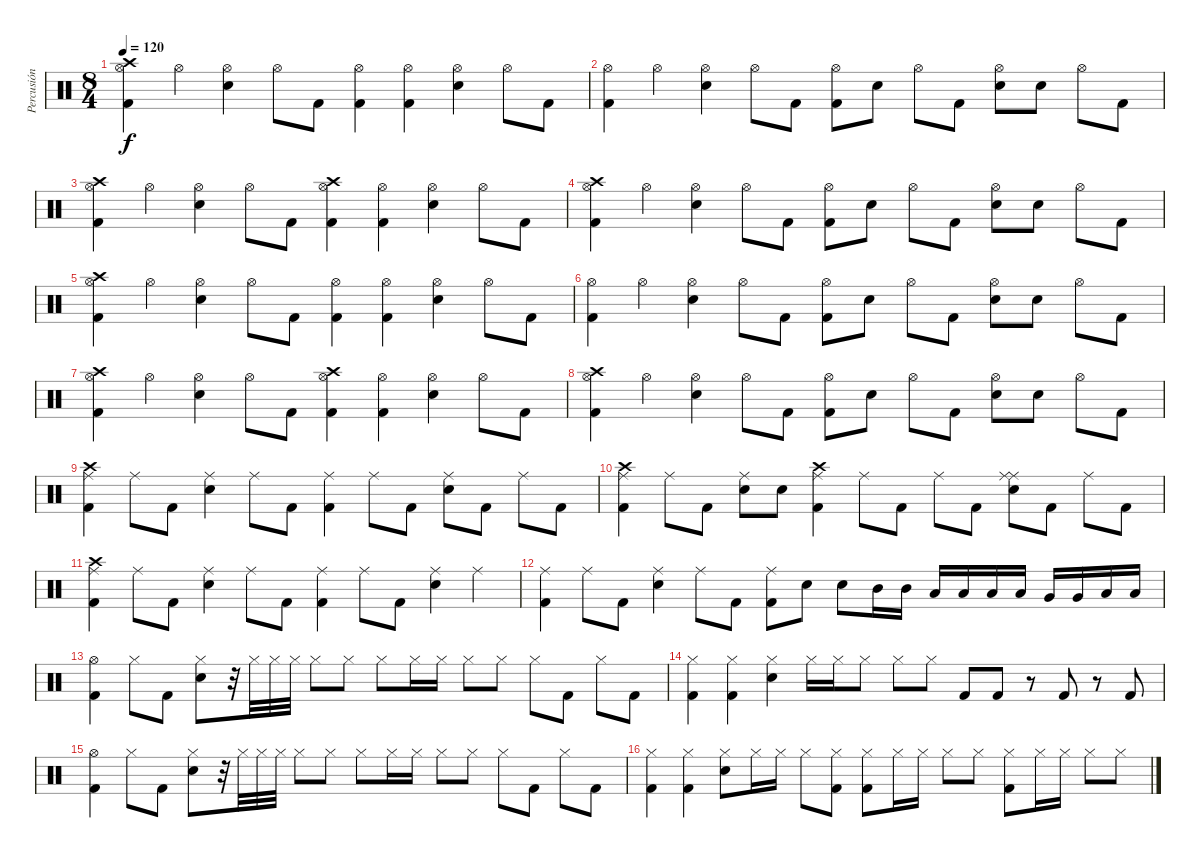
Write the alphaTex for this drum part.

\track ("Percusión" "Percusión") {instrument percussion}
\staff {score}
\articulation defaults
\ts (8 4)
\tempo 120
\clef neutral
\ks c
("Crash high (hit)" "Hi-Hat (open)" "Kick (hit) 2").4{dy f} "Hi-Hat (open)".4 ("Hi-Hat (open)" "Electric Snare (hit)").4 "Hi-Hat (open)".8 "Kick (hit) 2".8 ("Hi-Hat (open)" "Kick (hit) 2").4 ("Hi-Hat (open)" "Kick (hit) 2").4 ("Hi-Hat (open)" "Electric Snare (hit)").4 "Hi-Hat (open)".8 "Kick (hit) 2".8 |
("Hi-Hat (open)" "Kick (hit) 2").4 "Hi-Hat (open)".4 ("Hi-Hat (open)" "Electric Snare (hit)").4 "Hi-Hat (open)".8 "Kick (hit) 2".8 ("Hi-Hat (open)" "Kick (hit) 2").8 "Electric Snare (hit)".8 "Hi-Hat (open)".8 "Kick (hit) 2".8 ("Hi-Hat (open)" "Electric Snare (hit)").8 "Electric Snare (hit)".8 "Hi-Hat (open)".8 "Kick (hit) 2".8 |
("Crash high (hit)" "Hi-Hat (open)" "Kick (hit) 2").4 "Hi-Hat (open)".4 ("Hi-Hat (open)" "Electric Snare (hit)").4 "Hi-Hat (open)".8 "Kick (hit) 2".8 ("Crash high (hit)" "Hi-Hat (open)" "Kick (hit) 2").4 ("Hi-Hat (open)" "Kick (hit) 2").4 ("Hi-Hat (open)" "Electric Snare (hit)").4 "Hi-Hat (open)".8 "Kick (hit) 2".8 |
("Crash high (hit)" "Hi-Hat (open)" "Kick (hit) 2").4 "Hi-Hat (open)".4 ("Hi-Hat (open)" "Electric Snare (hit)").4 "Hi-Hat (open)".8 "Kick (hit) 2".8 ("Hi-Hat (open)" "Kick (hit) 2").8 "Electric Snare (hit)".8 "Hi-Hat (open)".8 "Kick (hit) 2".8 ("Hi-Hat (open)" "Electric Snare (hit)").8 "Electric Snare (hit)".8 "Hi-Hat (open)".8 "Kick (hit) 2".8 |
("Crash high (hit)" "Hi-Hat (open)" "Kick (hit) 2").4 "Hi-Hat (open)".4 ("Hi-Hat (open)" "Electric Snare (hit)").4 "Hi-Hat (open)".8 "Kick (hit) 2".8 ("Hi-Hat (open)" "Kick (hit) 2").4 ("Hi-Hat (open)" "Kick (hit) 2").4 ("Hi-Hat (open)" "Electric Snare (hit)").4 "Hi-Hat (open)".8 "Kick (hit) 2".8 |
("Hi-Hat (open)" "Kick (hit) 2").4 "Hi-Hat (open)".4 ("Hi-Hat (open)" "Electric Snare (hit)").4 "Hi-Hat (open)".8 "Kick (hit) 2".8 ("Hi-Hat (open)" "Kick (hit) 2").8 "Electric Snare (hit)".8 "Hi-Hat (open)".8 "Kick (hit) 2".8 ("Hi-Hat (open)" "Electric Snare (hit)").8 "Electric Snare (hit)".8 "Hi-Hat (open)".8 "Kick (hit) 2".8 |
("Crash high (hit)" "Hi-Hat (open)" "Kick (hit) 2").4 "Hi-Hat (open)".4 ("Hi-Hat (open)" "Electric Snare (hit)").4 "Hi-Hat (open)".8 "Kick (hit) 2".8 ("Crash high (hit)" "Hi-Hat (open)" "Kick (hit) 2").4 ("Hi-Hat (open)" "Kick (hit) 2").4 ("Hi-Hat (open)" "Electric Snare (hit)").4 "Hi-Hat (open)".8 "Kick (hit) 2".8 |
("Crash high (hit)" "Hi-Hat (open)" "Kick (hit) 2").4 "Hi-Hat (open)".4 ("Hi-Hat (open)" "Electric Snare (hit)").4 "Hi-Hat (open)".8 "Kick (hit) 2".8 ("Hi-Hat (open)" "Kick (hit) 2").8 "Electric Snare (hit)".8 "Hi-Hat (open)".8 "Kick (hit) 2".8 ("Hi-Hat (open)" "Electric Snare (hit)").8 "Electric Snare (hit)".8 "Hi-Hat (open)".8 "Kick (hit) 2".8 |
("Crash high (hit)" "Ride (middle)" "Kick (hit) 2").4 "Ride (middle)".8 "Kick (hit) 2".8 ("Ride (middle)" "Electric Snare (hit)").4 "Ride (middle)".8 "Kick (hit) 2".8 ("Ride (middle)" "Kick (hit) 2").4 "Ride (middle)".8 "Kick (hit) 2".8 ("Ride (middle)" "Electric Snare (hit)").8 "Kick (hit) 2".8 "Ride (middle)".8 "Kick (hit) 2".8 |
("Crash high (hit)" "Ride (middle)" "Kick (hit) 2").4 "Ride (middle)".8 "Kick (hit) 2".8 ("Ride (middle)" "Electric Snare (hit)").8 "Electric Snare (hit)".8 ("Crash high (hit)" "Ride (middle)" "Kick (hit) 2").4 "Ride (middle)".8 "Kick (hit) 2".8 "Ride (middle)".8 "Kick (hit) 2".8 ("Ride (middle)" "Electric Snare (hit)" "Ride (middle)").8 "Kick (hit) 2".8 "Ride (middle)".8 "Kick (hit) 2".8 |
("Crash high (hit)" "Ride (middle)" "Kick (hit) 2").4 "Ride (middle)".8 "Kick (hit) 2".8 ("Ride (middle)" "Electric Snare (hit)").4 "Ride (middle)".8 "Kick (hit) 2".8 ("Ride (middle)" "Kick (hit) 2").4 "Ride (middle)".8 "Kick (hit) 2".8 ("Ride (middle)" "Electric Snare (hit)").4 "Ride (middle)".4 |
("Ride (middle)" "Kick (hit) 2").4 "Ride (middle)".8 "Kick (hit) 2".8 ("Ride (middle)" "Electric Snare (hit)").4 "Ride (middle)".8 "Kick (hit) 2".8 ("Ride (middle)" "Kick (hit) 2").8 "Electric Snare (hit)".8 "Electric Snare (hit)".8 "Mid Tom (hit)".16 "Mid Tom (hit)".16 "Low Tom (hit)".16 "Low Tom (hit)".16 "Low Tom (hit)".16 "Low Tom (hit)".16 "Very Low Tom (hit)".16 "Very Low Tom (hit)".16 "Low Floor Tom (hit)".16 "Low Floor Tom (hit)".16 |
("Hi-Hat (open)" "Kick (hit) 2").4 "Hi-Hat (closed)".8 "Kick (hit) 2".8 ("Hi-Hat (closed)" "Electric Snare (hit)").8 r.32 "Hi-Hat (closed)".32 "Hi-Hat (closed)".32 "Hi-Hat (closed)".32 "Hi-Hat (closed)".8 "Hi-Hat (closed)".8 "Hi-Hat (closed)".8 "Hi-Hat (closed)".16 "Hi-Hat (closed)".16 "Hi-Hat (closed)".8 "Hi-Hat (closed)".8 "Hi-Hat (closed)".8 "Kick (hit) 2".8 "Hi-Hat (closed)".8 "Kick (hit) 2".8 |
("Hi-Hat (closed)" "Kick (hit) 2").4 ("Hi-Hat (closed)" "Kick (hit) 2").4 ("Hi-Hat (closed)" "Electric Snare (hit)").4 "Hi-Hat (closed)".16 "Hi-Hat (closed)".16 "Hi-Hat (closed)".8 "Hi-Hat (closed)".8 "Hi-Hat (closed)".8 "Kick (hit) 2".8 "Kick (hit) 2".8 r.8 "Kick (hit) 2".8 r.8 "Kick (hit) 2".8 |
("Hi-Hat (open)" "Kick (hit) 2").4 "Hi-Hat (closed)".8 "Kick (hit) 2".8 ("Hi-Hat (closed)" "Electric Snare (hit)").8 r.32 "Hi-Hat (closed)".32 "Hi-Hat (closed)".32 "Hi-Hat (closed)".32 "Hi-Hat (closed)".8 "Hi-Hat (closed)".8 "Hi-Hat (closed)".8 "Hi-Hat (closed)".16 "Hi-Hat (closed)".16 "Hi-Hat (closed)".8 "Hi-Hat (closed)".8 "Hi-Hat (closed)".8 "Kick (hit) 2".8 "Hi-Hat (closed)".8 "Kick (hit) 2".8 |
("Hi-Hat (closed)" "Kick (hit) 2").4 ("Hi-Hat (closed)" "Kick (hit) 2").4 ("Hi-Hat (closed)" "Electric Snare (hit)").8 "Hi-Hat (closed)".16 "Hi-Hat (closed)".16 "Hi-Hat (closed)".8 ("Hi-Hat (closed)" "Kick (hit) 2").8 ("Hi-Hat (closed)" "Kick (hit) 2").8 "Hi-Hat (closed)".16 "Hi-Hat (closed)".16 "Hi-Hat (closed)".8 "Hi-Hat (closed)".8 ("Hi-Hat (closed)" "Kick (hit) 2").8 "Hi-Hat (closed)".16 "Hi-Hat (closed)".16 "Hi-Hat (closed)".8 "Hi-Hat (closed)".8
